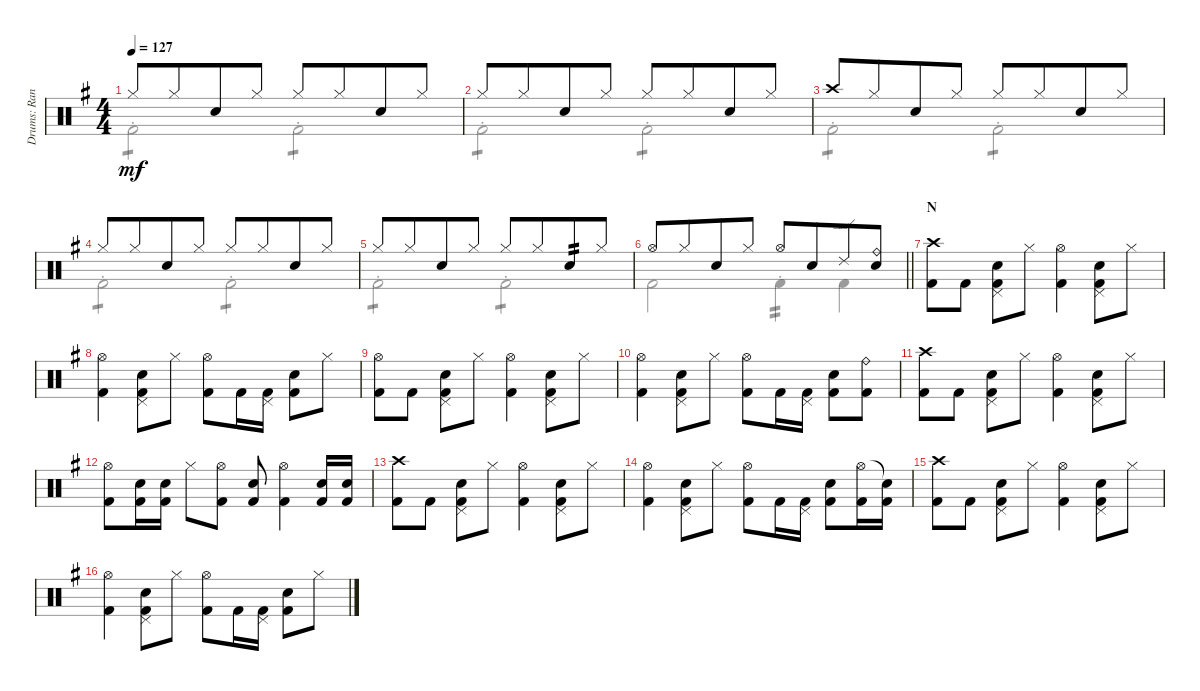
\track ("Drums: Randy" "Drums: Ran") {instrument percussion}
\staff {score}
\articulation defaults
\voice
\ts (4 4)
\tempo 127
\clef neutral
\ks g "Hi-Hat (closed)".8{dy mf} "Hi-Hat (closed)".8{beam merge} "Snare (hit) 2".8 "Hi-Hat (closed)".8 "Hi-Hat (closed)".8 "Hi-Hat (closed)".8{beam merge} "Snare (hit) 2".8 "Hi-Hat (closed)".8
|
"Hi-Hat (closed)".8 "Hi-Hat (closed)".8{beam merge} "Snare (hit) 2".8 "Hi-Hat (closed)".8 "Hi-Hat (closed)".8 "Hi-Hat (closed)".8{beam merge} "Snare (hit) 2".8 "Hi-Hat (closed)".8 |
"Crash high (hit)".8 "Hi-Hat (closed)".8{beam merge} "Snare (hit) 2".8 "Hi-Hat (closed)".8 "Hi-Hat (closed)".8 "Hi-Hat (closed)".8{beam merge} "Snare (hit) 2".8 "Hi-Hat (closed)".8 |
"Hi-Hat (closed)".8 "Hi-Hat (closed)".8{beam merge} "Snare (hit) 2".8 "Hi-Hat (closed)".8 "Hi-Hat (closed)".8 "Hi-Hat (closed)".8{beam merge} "Snare (hit) 2".8 "Hi-Hat (closed)".8 |
"Hi-Hat (closed)".8 "Hi-Hat (closed)".8{beam merge} "Snare (hit) 2".8 "Hi-Hat (closed)".8 "Hi-Hat (closed)".8 "Hi-Hat (closed)".8{beam merge} "Snare (hit) 2".8{tp 2} "Hi-Hat (closed)".8 |
\barLineRight lightlight "Hi-Hat (open)".8 "Hi-Hat (closed)".8{beam merge} "Snare (hit) 2".8 "Hi-Hat (closed)".8 "Hi-Hat (open)".8 "Snare (hit) 2".8{beam merge} "Ride (edge) 2".8
("Ride (bell)" "Snare (hit) 2").8 |
\section ("" "N")
("Crash high (hit)" "Kick (hit) 2").8 "Kick (hit) 2".8 ("Pedal Hi-Hat (hit)" "Snare (hit) 2" "Kick (hit) 2").8 "Hi-Hat (closed)".8 ("Hi-Hat (open)" "Kick (hit) 2").4 ("Pedal Hi-Hat (hit)" "Snare (hit) 2" "Kick (hit) 2").8 "Hi-Hat (closed)".8 |
("Hi-Hat (open)" "Kick (hit) 2").4 ("Pedal Hi-Hat (hit)" "Snare (hit) 2" "Kick (hit) 2").8 "Hi-Hat (closed)".8 ("Hi-Hat (open)" "Kick (hit) 2").8 "Kick (hit) 2".16 ("Pedal Hi-Hat (hit)" "Kick (hit) 2").16 ("Snare (hit) 2" "Kick (hit) 2").8 "Hi-Hat (closed)".8 |
("Hi-Hat (open)" "Kick (hit) 2").8 "Kick (hit) 2".8 ("Pedal Hi-Hat (hit)" "Snare (hit) 2" "Kick (hit) 2").8 "Hi-Hat (closed)".8 ("Hi-Hat (open)" "Kick (hit) 2").4 ("Pedal Hi-Hat (hit)" "Snare (hit) 2" "Kick (hit) 2").8 "Hi-Hat (closed)".8 |
("Hi-Hat (open)" "Kick (hit) 2").4 ("Pedal Hi-Hat (hit)" "Snare (hit) 2" "Kick (hit) 2").8 "Hi-Hat (closed)".8 ("Hi-Hat (open)" "Kick (hit) 2").8 "Kick (hit) 2".16 ("Pedal Hi-Hat (hit)" "Kick (hit) 2").16 ("Snare (hit) 2" "Kick (hit) 2").8 ("Ride (bell)" "Kick (hit) 2").8 |
("Crash high (hit)" "Kick (hit) 2").8 "Kick (hit) 2".8 ("Pedal Hi-Hat (hit)" "Snare (hit) 2" "Kick (hit) 2").8 "Hi-Hat (closed)".8 ("Hi-Hat (open)" "Kick (hit) 2").4 ("Pedal Hi-Hat (hit)" "Snare (hit) 2" "Kick (hit) 2").8 "Hi-Hat (closed)".8 |
("Hi-Hat (open)" "Kick (hit) 2").8 ("Snare (hit) 2" "Kick (hit) 2").16 ("Snare (hit) 2" "Kick (hit) 2").16 "Hi-Hat (closed)".8 ("Hi-Hat (open)" "Kick (hit) 2").8 ("Snare (hit) 2" "Kick (hit) 2").8 ("Hi-Hat (open)" "Kick (hit) 2").4 ("Snare (hit) 2" "Kick (hit) 2").16 ("Snare (hit) 2" "Kick (hit) 2").16 |
("Crash high (hit)" "Kick (hit) 2").8 "Kick (hit) 2".8 ("Pedal Hi-Hat (hit)" "Snare (hit) 2" "Kick (hit) 2").8 "Hi-Hat (closed)".8 ("Hi-Hat (open)" "Kick (hit) 2").4 ("Pedal Hi-Hat (hit)" "Snare (hit) 2" "Kick (hit) 2").8 "Hi-Hat (closed)".8 |
("Hi-Hat (open)" "Kick (hit) 2").4 ("Pedal Hi-Hat (hit)" "Snare (hit) 2" "Kick (hit) 2").8 "Hi-Hat (closed)".8 ("Hi-Hat (open)" "Kick (hit) 2").8 "Kick (hit) 2".16 ("Pedal Hi-Hat (hit)" "Kick (hit) 2").16 ("Snare (hit) 2" "Kick (hit) 2").8 ("Hi-Hat (open)" "Kick (hit) 2").16 ("Snare (hit)"{t} "Kick (hit) 2").16 |
("Crash high (hit)" "Kick (hit) 2").8 "Kick (hit) 2".8 ("Pedal Hi-Hat (hit)" "Snare (hit) 2" "Kick (hit) 2").8 "Hi-Hat (closed)".8 ("Hi-Hat (open)" "Kick (hit) 2").4 ("Pedal Hi-Hat (hit)" "Snare (hit) 2" "Kick (hit) 2").8 "Hi-Hat (closed)".8 |
("Hi-Hat (open)" "Kick (hit) 2").4 ("Pedal Hi-Hat (hit)" "Snare (hit) 2" "Kick (hit) 2").8 "Hi-Hat (closed)".8 ("Hi-Hat (open)" "Kick (hit) 2").8 "Kick (hit) 2".16 ("Pedal Hi-Hat (hit)" "Kick (hit) 2").16 ("Snare (hit) 2" "Kick (hit) 2").8 "Hi-Hat (closed)".8
\voice
\clef neutral
\ottava regular
\simile none
\ks g "Kick (hit) 2"{st}.2{tp 1 dy mf} "Kick (hit) 2"{st}.2{tp 1}
|
"Kick (hit) 2"{st}.2{tp 1} "Kick (hit) 2"{st}.2{tp 1} |
"Kick (hit) 2"{st}.2{tp 1} "Kick (hit) 2"{st}.2{tp 1} |
"Kick (hit) 2"{st}.2{tp 1} "Kick (hit) 2"{st}.2{tp 1} |
"Kick (hit) 2"{st}.2{tp 1} "Kick (hit) 2"{st}.2{tp 1} |
\barLineRight lightlight "Kick (hit) 2".2 "Kick (hit) 2"{st}.4{tp 2} "Kick (hit) 2".4
|
|
|
|
|
|
|
|
|
|
